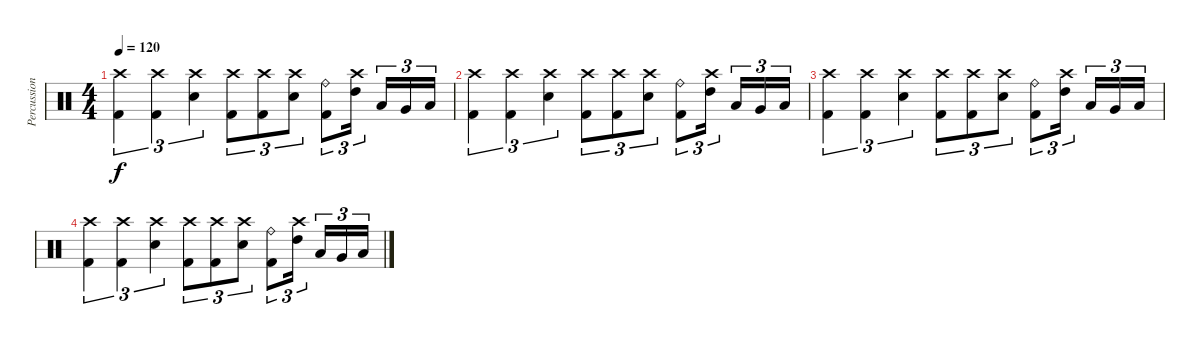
\track ("Percussions" "Percussion") {instrument percussion}
\staff {score}
\articulation defaults
\ts (4 4)
\tempo 120
\clef neutral
\ks c
("Crash high (hit)" "Kick (hit) 2").4{tu (3 2) dy f} ("Crash high (hit)" "Kick (hit) 2").4{tu (3 2)} ("Crash high (hit)" "Electric Snare (hit)").4{tu (3 2)} ("Crash high (hit)" "Kick (hit) 2").8{tu (3 2)} ("Crash high (hit)" "Kick (hit) 2").8{tu (3 2)} ("Crash high (hit)" "Electric Snare (hit)").8{tu (3 2)} ("Ride (bell)" "Kick (hit) 2").8{tu (3 2)} ("Crash high (hit)" "High Tom (hit)").16{tu (3 2)} "Low Tom (hit)".16{tu (3 2)} "Very Low Tom (hit)".16{tu (3 2)} "Low Floor Tom (hit)".16{tu (3 2)} |
("Crash high (hit)" "Kick (hit) 2").4{tu (3 2)} ("Crash high (hit)" "Kick (hit) 2").4{tu (3 2)} ("Crash high (hit)" "Electric Snare (hit)").4{tu (3 2)} ("Crash high (hit)" "Kick (hit) 2").8{tu (3 2)} ("Crash high (hit)" "Kick (hit) 2").8{tu (3 2)} ("Crash high (hit)" "Electric Snare (hit)").8{tu (3 2)} ("Ride (bell)" "Kick (hit) 2").8{tu (3 2)} ("Crash high (hit)" "High Tom (hit)").16{tu (3 2)} "Low Tom (hit)".16{tu (3 2)} "Very Low Tom (hit)".16{tu (3 2)} "Low Floor Tom (hit)".16{tu (3 2)} |
("Crash high (hit)" "Kick (hit) 2").4{tu (3 2)} ("Crash high (hit)" "Kick (hit) 2").4{tu (3 2)} ("Crash high (hit)" "Electric Snare (hit)").4{tu (3 2)} ("Crash high (hit)" "Kick (hit) 2").8{tu (3 2)} ("Crash high (hit)" "Kick (hit) 2").8{tu (3 2)} ("Crash high (hit)" "Electric Snare (hit)").8{tu (3 2)} ("Ride (bell)" "Kick (hit) 2").8{tu (3 2)} ("Crash high (hit)" "High Tom (hit)").16{tu (3 2)} "Low Tom (hit)".16{tu (3 2)} "Very Low Tom (hit)".16{tu (3 2)} "Low Floor Tom (hit)".16{tu (3 2)} |
("Crash high (hit)" "Kick (hit) 2").4{tu (3 2)} ("Crash high (hit)" "Kick (hit) 2").4{tu (3 2)} ("Crash high (hit)" "Electric Snare (hit)").4{tu (3 2)} ("Crash high (hit)" "Kick (hit) 2").8{tu (3 2)} ("Crash high (hit)" "Kick (hit) 2").8{tu (3 2)} ("Crash high (hit)" "Electric Snare (hit)").8{tu (3 2)} ("Ride (bell)" "Kick (hit) 2").8{tu (3 2)} ("Crash high (hit)" "High Tom (hit)").16{tu (3 2)} "Low Tom (hit)".16{tu (3 2)} "Very Low Tom (hit)".16{tu (3 2)} "Low Floor Tom (hit)".16{tu (3 2)}
